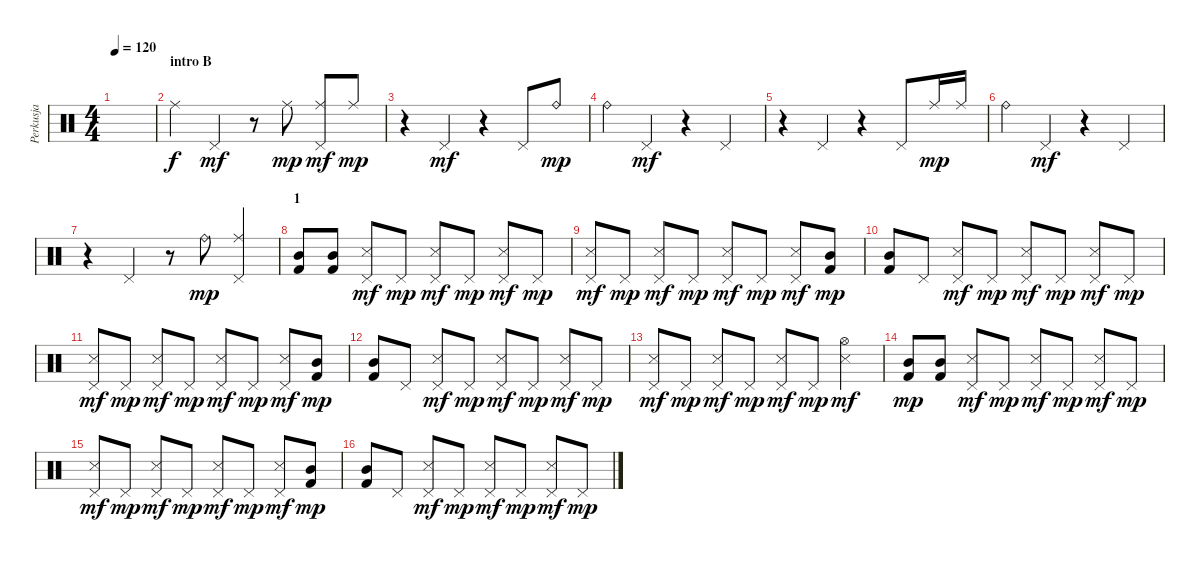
\track ("Perkusja" "Perkusja") {instrument percussion}
\staff {score}
\articulation defaults
\ts (4 4)
\tempo 120
\clef neutral
\ks c
|
\section ("" "intro B")
"Ride (middle)".4 "Pedal Hi-Hat (hit)".4{dy mf} r.8 "Ride (middle)".8{dy mp} ("Ride (middle)" "Pedal Hi-Hat (hit)").8{dy mf} "Ride (middle)".8{dy mp} |
r.4 "Pedal Hi-Hat (hit)".4{dy mf} r.4 "Pedal Hi-Hat (hit)".8 "Ride (bell)".8{dy mp} |
"Ride (bell)".4 "Pedal Hi-Hat (hit)".4{dy mf} r.4 "Pedal Hi-Hat (hit)".4 |
r.4 "Pedal Hi-Hat (hit)".4 r.4 "Pedal Hi-Hat (hit)".8 "Ride (middle)".16{dy mp} "Ride (middle)".16 |
"Ride (bell)".4 "Pedal Hi-Hat (hit)".4{dy mf} r.4 "Pedal Hi-Hat (hit)".4 |
r.4 "Pedal Hi-Hat (hit)".4 r.8 "Ride (bell)".8{dy mp} ("Ride (middle)" "Pedal Hi-Hat (hit)").4 |
\section ("" "1")
("Mid Tom (hit)" "Kick (hit) 2").8 ("Mid Tom (hit)" "Kick (hit) 2").8 ("Snare (side stick) 3" "Pedal Hi-Hat (hit)").8{dy mf} "Pedal Hi-Hat (hit)".8{dy mp} ("Snare (side stick) 3" "Pedal Hi-Hat (hit)").8{dy mf} "Pedal Hi-Hat (hit)".8{dy mp} ("Snare (side stick) 3" "Pedal Hi-Hat (hit)").8{dy mf} "Pedal Hi-Hat (hit)".8{dy mp} |
("Snare (side stick) 3" "Pedal Hi-Hat (hit)").8{dy mf} "Pedal Hi-Hat (hit)".8{dy mp} ("Snare (side stick) 3" "Pedal Hi-Hat (hit)").8{dy mf} "Pedal Hi-Hat (hit)".8{dy mp} ("Snare (side stick) 3" "Pedal Hi-Hat (hit)").8{dy mf} "Pedal Hi-Hat (hit)".8{dy mp} ("Snare (side stick) 3" "Pedal Hi-Hat (hit)").8{dy mf} ("Mid Tom (hit)" "Kick (hit) 2").8{dy mp} |
("Mid Tom (hit)" "Kick (hit) 2").8 "Pedal Hi-Hat (hit)".8 ("Snare (side stick) 3" "Pedal Hi-Hat (hit)").8{dy mf} "Pedal Hi-Hat (hit)".8{dy mp} ("Snare (side stick) 3" "Pedal Hi-Hat (hit)").8{dy mf} "Pedal Hi-Hat (hit)".8{dy mp} ("Snare (side stick) 3" "Pedal Hi-Hat (hit)").8{dy mf} "Pedal Hi-Hat (hit)".8{dy mp} |
("Snare (side stick) 3" "Pedal Hi-Hat (hit)").8{dy mf} "Pedal Hi-Hat (hit)".8{dy mp} ("Snare (side stick) 3" "Pedal Hi-Hat (hit)").8{dy mf} "Pedal Hi-Hat (hit)".8{dy mp} ("Snare (side stick) 3" "Pedal Hi-Hat (hit)").8{dy mf} "Pedal Hi-Hat (hit)".8{dy mp} ("Snare (side stick) 3" "Pedal Hi-Hat (hit)").8{dy mf} ("Mid Tom (hit)" "Kick (hit) 2").8{dy mp} |
("Mid Tom (hit)" "Kick (hit) 2").8 "Pedal Hi-Hat (hit)".8 ("Snare (side stick) 3" "Pedal Hi-Hat (hit)").8{dy mf} "Pedal Hi-Hat (hit)".8{dy mp} ("Snare (side stick) 3" "Pedal Hi-Hat (hit)").8{dy mf} "Pedal Hi-Hat (hit)".8{dy mp} ("Snare (side stick) 3" "Pedal Hi-Hat (hit)").8{dy mf} "Pedal Hi-Hat (hit)".8{dy mp} |
("Snare (side stick) 3" "Pedal Hi-Hat (hit)").8{dy mf} "Pedal Hi-Hat (hit)".8{dy mp} ("Snare (side stick) 3" "Pedal Hi-Hat (hit)").8{dy mf} "Pedal Hi-Hat (hit)".8{dy mp} ("Snare (side stick) 3" "Pedal Hi-Hat (hit)").8{dy mf} "Pedal Hi-Hat (hit)".8{dy mp} ("Snare (side stick) 3" "Hi-Hat (open)").4{dy mf} |
("Mid Tom (hit)" "Kick (hit) 2").8{dy mp} ("Mid Tom (hit)" "Kick (hit) 2").8 ("Snare (side stick) 3" "Pedal Hi-Hat (hit)").8{dy mf} "Pedal Hi-Hat (hit)".8{dy mp} ("Snare (side stick) 3" "Pedal Hi-Hat (hit)").8{dy mf} "Pedal Hi-Hat (hit)".8{dy mp} ("Snare (side stick) 3" "Pedal Hi-Hat (hit)").8{dy mf} "Pedal Hi-Hat (hit)".8{dy mp} |
("Snare (side stick) 3" "Pedal Hi-Hat (hit)").8{dy mf} "Pedal Hi-Hat (hit)".8{dy mp} ("Snare (side stick) 3" "Pedal Hi-Hat (hit)").8{dy mf} "Pedal Hi-Hat (hit)".8{dy mp} ("Snare (side stick) 3" "Pedal Hi-Hat (hit)").8{dy mf} "Pedal Hi-Hat (hit)".8{dy mp} ("Snare (side stick) 3" "Pedal Hi-Hat (hit)").8{dy mf} ("Mid Tom (hit)" "Kick (hit) 2").8{dy mp} |
("Mid Tom (hit)" "Kick (hit) 2").8 "Pedal Hi-Hat (hit)".8 ("Snare (side stick) 3" "Pedal Hi-Hat (hit)").8{dy mf} "Pedal Hi-Hat (hit)".8{dy mp} ("Snare (side stick) 3" "Pedal Hi-Hat (hit)").8{dy mf} "Pedal Hi-Hat (hit)".8{dy mp} ("Snare (side stick) 3" "Pedal Hi-Hat (hit)").8{dy mf} "Pedal Hi-Hat (hit)".8{dy mp}
